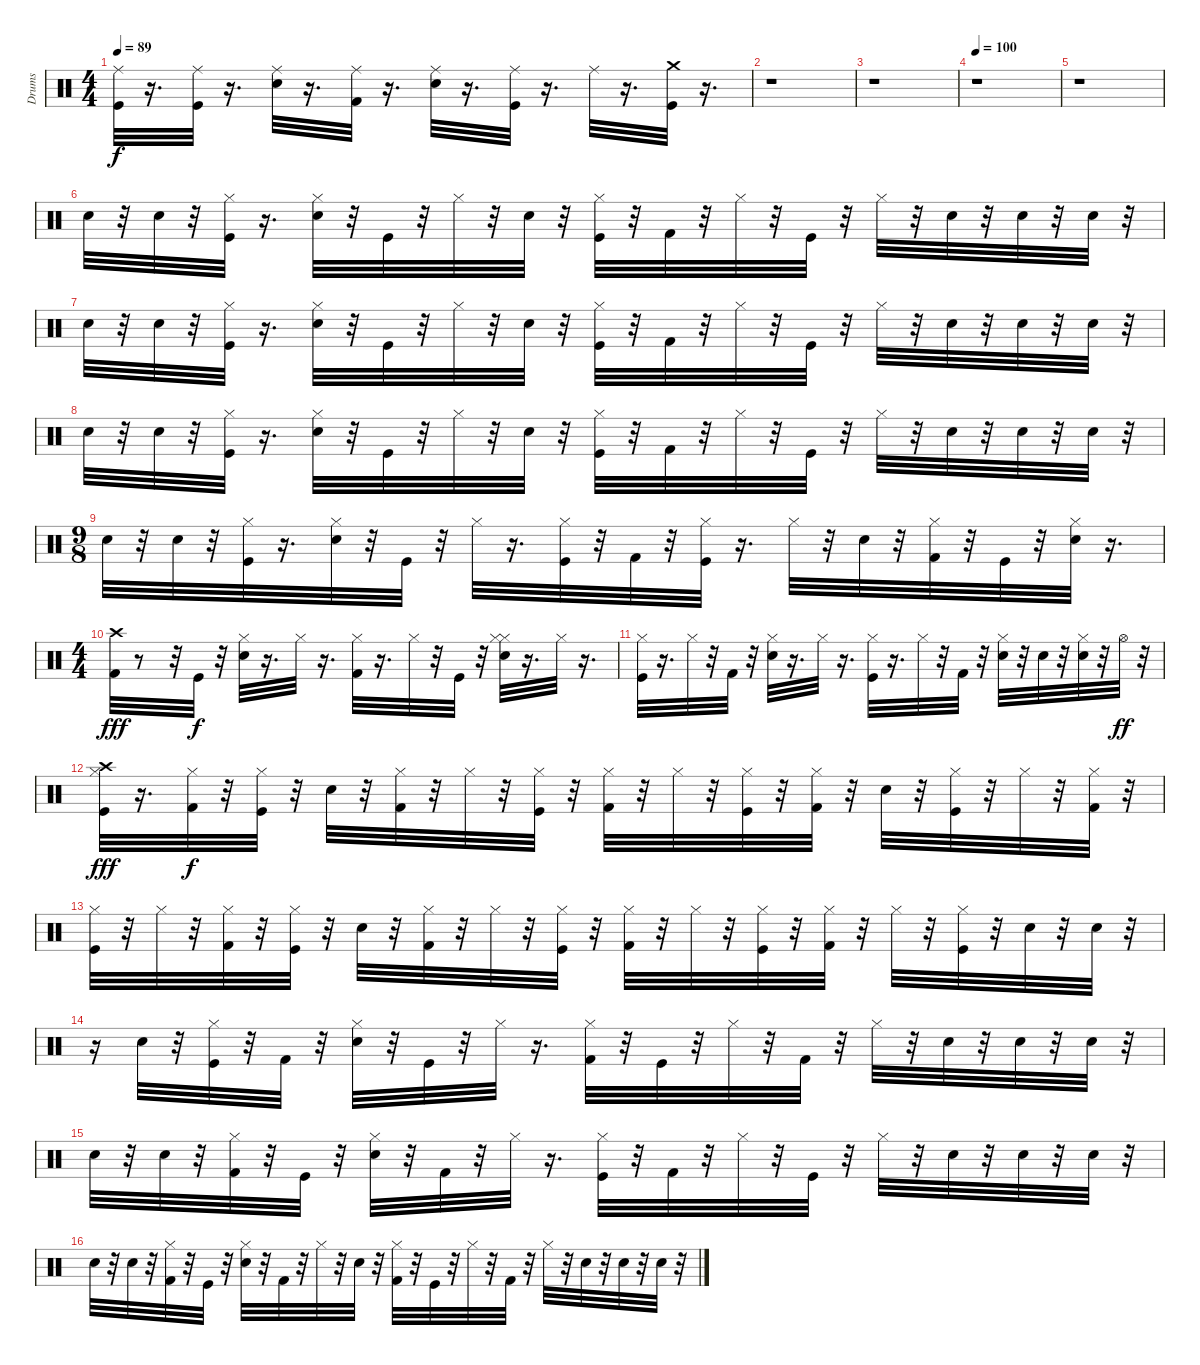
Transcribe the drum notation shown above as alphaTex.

\track ("Drums" "Drums") {instrument percussion}
\staff {score}
\articulation defaults
\ts (4 4)
\tempo 89
\clef neutral
\ks c
("Kick (hit)" "Ride (middle)").32{dy f} r.16{d} ("Kick (hit)" "Ride (middle)").32 r.16{d} ("Electric Snare (hit)" "Ride (middle)").32 r.16{d} ("Kick (hit) 2" "Ride (middle)").32 r.16{d} ("Electric Snare (hit)" "Ride (middle)").32 r.16{d} ("Kick (hit)" "Ride (middle)").32 r.16{d} "Ride (middle)".32 r.16{d} ("Crash medium (hit)" "Kick (hit)").32 r.16{d} |
r.1 |
r.1 |
\tempo 100
r.1 |
r.1 |
"Electric Snare (hit)".32 r.32 "Electric Snare (hit)".32 r.32 ("Hi-Hat (closed)" "Kick (hit)").32 r.16{d} ("Electric Snare (hit)" "Hi-Hat (closed)").32 r.32 "Kick (hit)".32 r.32 "Hi-Hat (closed)".32 r.32 "Electric Snare (hit)".32 r.32 ("Kick (hit)" "Hi-Hat (closed)").32 r.32 "Kick (hit) 2".32 r.32 "Hi-Hat (closed)".32 r.32 "Kick (hit)".32 r.32 "Hi-Hat (closed)".32 r.32 "Electric Snare (hit)".32 r.32 "Electric Snare (hit)".32 r.32 "Electric Snare (hit)".32 r.32 |
"Electric Snare (hit)".32 r.32 "Electric Snare (hit)".32 r.32 ("Hi-Hat (closed)" "Kick (hit)").32 r.16{d} ("Electric Snare (hit)" "Hi-Hat (closed)").32 r.32 "Kick (hit)".32 r.32 "Hi-Hat (closed)".32 r.32 "Electric Snare (hit)".32 r.32 ("Kick (hit)" "Hi-Hat (closed)").32 r.32 "Kick (hit) 2".32 r.32 "Hi-Hat (closed)".32 r.32 "Kick (hit)".32 r.32 "Hi-Hat (closed)".32 r.32 "Electric Snare (hit)".32 r.32 "Electric Snare (hit)".32 r.32 "Electric Snare (hit)".32 r.32 |
"Electric Snare (hit)".32 r.32 "Electric Snare (hit)".32 r.32 ("Hi-Hat (closed)" "Kick (hit)").32 r.16{d} ("Electric Snare (hit)" "Hi-Hat (closed)").32 r.32 "Kick (hit)".32 r.32 "Hi-Hat (closed)".32 r.32 "Electric Snare (hit)".32 r.32 ("Kick (hit)" "Hi-Hat (closed)").32 r.32 "Kick (hit) 2".32 r.32 "Hi-Hat (closed)".32 r.32 "Kick (hit)".32 r.32 "Hi-Hat (closed)".32 r.32 "Electric Snare (hit)".32 r.32 "Electric Snare (hit)".32 r.32 "Electric Snare (hit)".32 r.32 |
\ts (9 8)
"Electric Snare (hit)".32 r.32 "Electric Snare (hit)".32 r.32 ("Hi-Hat (closed)" "Kick (hit)").32 r.16{d} ("Hi-Hat (closed)" "Electric Snare (hit)").32 r.32 "Kick (hit)".32 r.32 "Hi-Hat (closed)".32 r.16{d} ("Hi-Hat (closed)" "Kick (hit)").32 r.32 "Kick (hit) 2".32 r.32 ("Hi-Hat (closed)" "Kick (hit)").32 r.16{d} "Hi-Hat (closed)".32 r.32 "Electric Snare (hit)".32 r.32 ("Hi-Hat (closed)" "Kick (hit) 2").32 r.32 "Kick (hit)".32 r.32 ("Electric Snare (hit)" "Hi-Hat (closed)").32 r.16{d} |
\ts (4 4)
("Kick (hit) 2" "Crash high (hit)").32{dy fff} r.8 r.32 "Kick (hit)".32{dy f} r.32 ("Hi-Hat (closed)" "Electric Snare (hit)").32 r.16{d} "Hi-Hat (closed)".32 r.16{d} ("Hi-Hat (closed)" "Kick (hit) 2").32 r.16{d} "Hi-Hat (closed)".32 r.32 "Kick (hit)".32 r.32 ("Hi-Hat (closed)" "Hi-Hat (closed)" "Electric Snare (hit)").32 r.16{d} "Hi-Hat (closed)".32 r.16{d} |
("Hi-Hat (closed)" "Kick (hit)").32 r.16{d} "Hi-Hat (closed)".32 r.32 "Kick (hit) 2".32 r.32 ("Hi-Hat (closed)" "Electric Snare (hit)").32 r.16{d} "Hi-Hat (closed)".32 r.16{d} ("Hi-Hat (closed)" "Kick (hit)").32 r.16{d} "Hi-Hat (closed)".32 r.32 "Kick (hit) 2".32 r.32 ("Hi-Hat (closed)" "Electric Snare (hit)").32 r.32 "Electric Snare (hit)".32 r.32 ("Hi-Hat (closed)" "Electric Snare (hit)").32 r.32 "Hi-Hat (open)".32{dy ff} r.32 |
("Kick (hit)" "Hi-Hat (closed)" "Crash high (hit)").32{dy fff} r.16{d} ("Hi-Hat (closed)" "Kick (hit) 2").32{dy f} r.32 ("Hi-Hat (closed)" "Kick (hit)").32 r.32 "Electric Snare (hit)".32 r.32 ("Hi-Hat (closed)" "Kick (hit) 2").32 r.32 "Hi-Hat (closed)".32 r.32 ("Hi-Hat (closed)" "Kick (hit)").32 r.32 ("Hi-Hat (closed)" "Kick (hit) 2").32 r.32 "Hi-Hat (closed)".32 r.32 ("Hi-Hat (closed)" "Kick (hit)").32 r.32 ("Hi-Hat (closed)" "Kick (hit) 2").32 r.32 "Electric Snare (hit)".32 r.32 ("Hi-Hat (closed)" "Kick (hit)").32 r.32 "Hi-Hat (closed)".32 r.32 ("Hi-Hat (closed)" "Kick (hit) 2").32 r.32 |
("Kick (hit)" "Hi-Hat (closed)").32 r.32 "Hi-Hat (closed)".32 r.32 ("Kick (hit) 2" "Hi-Hat (closed)").32 r.32 ("Kick (hit)" "Hi-Hat (closed)").32 r.32 "Electric Snare (hit)".32 r.32 ("Kick (hit) 2" "Hi-Hat (closed)").32 r.32 "Hi-Hat (closed)".32 r.32 ("Kick (hit)" "Hi-Hat (closed)").32 r.32 ("Kick (hit) 2" "Hi-Hat (closed)").32 r.32 "Hi-Hat (closed)".32 r.32 ("Kick (hit)" "Hi-Hat (closed)").32 r.32 ("Kick (hit) 2" "Hi-Hat (closed)").32 r.32 "Hi-Hat (closed)".32 r.32 ("Kick (hit)" "Hi-Hat (closed)").32 r.32 "Electric Snare (hit)".32 r.32 "Electric Snare (hit)".32 r.32 |
r.16 "Electric Snare (hit)".32 r.32 ("Hi-Hat (closed)" "Kick (hit)").32 r.32 "Kick (hit) 2".32 r.32 ("Hi-Hat (closed)" "Electric Snare (hit)").32 r.32 "Kick (hit)".32 r.32 "Hi-Hat (closed)".32 r.16{d} ("Hi-Hat (closed)" "Kick (hit) 2").32 r.32 "Kick (hit)".32 r.32 "Hi-Hat (closed)".32 r.32 "Kick (hit) 2".32 r.32 "Hi-Hat (closed)".32 r.32 "Electric Snare (hit)".32 r.32 "Electric Snare (hit)".32 r.32 "Electric Snare (hit)".32 r.32 |
"Electric Snare (hit)".32 r.32 "Electric Snare (hit)".32 r.32 ("Hi-Hat (closed)" "Kick (hit) 2").32 r.32 "Kick (hit)".32 r.32 ("Hi-Hat (closed)" "Electric Snare (hit)").32 r.32 "Kick (hit) 2".32 r.32 "Hi-Hat (closed)".32 r.16{d} ("Hi-Hat (closed)" "Kick (hit)").32 r.32 "Kick (hit) 2".32 r.32 "Hi-Hat (closed)".32 r.32 "Kick (hit)".32 r.32 "Hi-Hat (closed)".32 r.32 "Electric Snare (hit)".32 r.32 "Electric Snare (hit)".32 r.32 "Electric Snare (hit)".32 r.32 |
"Electric Snare (hit)".32 r.32 "Electric Snare (hit)".32 r.32 ("Kick (hit) 2" "Hi-Hat (closed)").32 r.32 "Kick (hit)".32 r.32 ("Electric Snare (hit)" "Hi-Hat (closed)").32 r.32 "Kick (hit) 2".32 r.32 "Hi-Hat (closed)".32 r.32 "Snare (hit) 2".32 r.32 ("Kick (hit) 2" "Hi-Hat (closed)").32 r.32 "Kick (hit)".32 r.32 "Hi-Hat (closed)".32 r.32 "Kick (hit) 2".32 r.32 "Hi-Hat (closed)".32 r.32 "Snare (hit) 2".32 r.32 "Electric Snare (hit)".32 r.32 "Electric Snare (hit)".32 r.32
